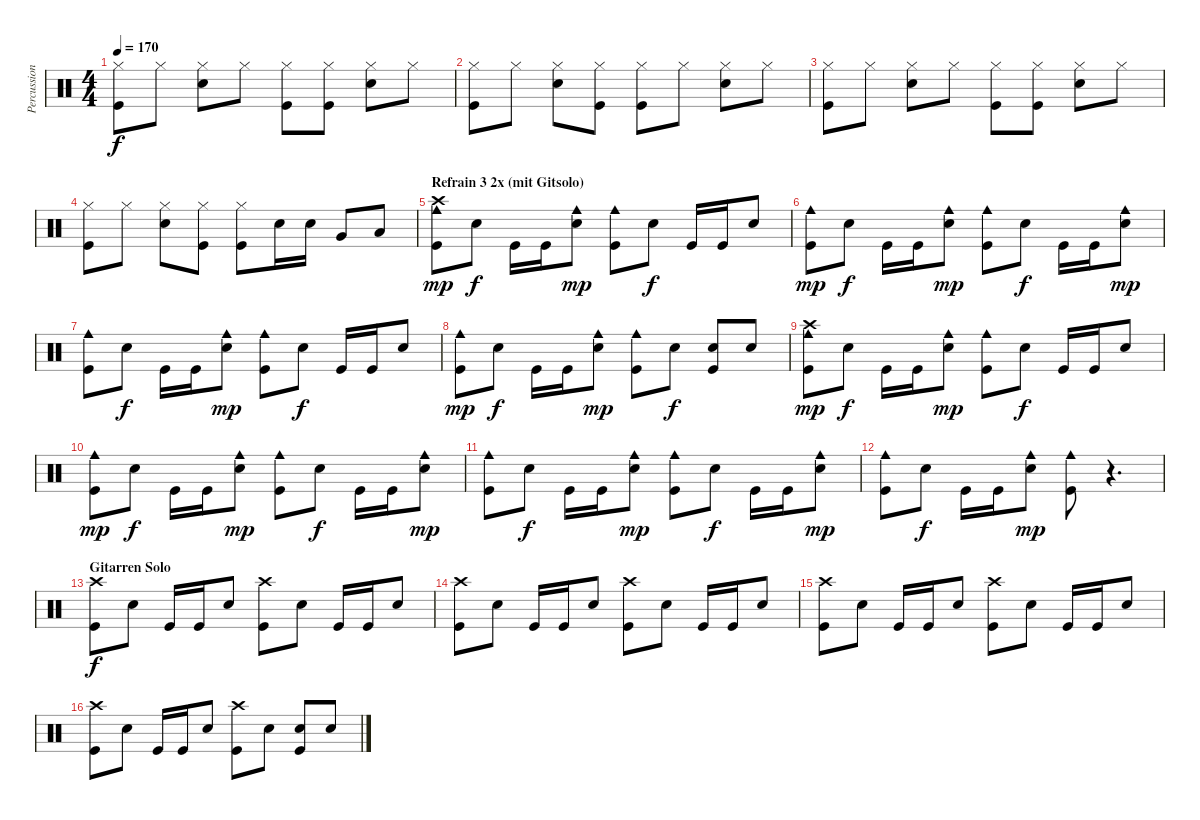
\track ("Percussion" "Percussion") {instrument percussion}
\staff {score}
\articulation defaults
\ts (4 4)
\tempo 170
\clef neutral
\ks c
("Hi-Hat (closed)" "Kick (hit)").8{dy f} "Hi-Hat (closed)".8 ("Hi-Hat (closed)" "Electric Snare (hit)").8 "Hi-Hat (closed)".8 ("Hi-Hat (closed)" "Kick (hit)").8 ("Hi-Hat (closed)" "Kick (hit)").8 ("Hi-Hat (closed)" "Electric Snare (hit)").8 "Hi-Hat (closed)".8 |
("Hi-Hat (closed)" "Kick (hit)").8 "Hi-Hat (closed)".8 ("Hi-Hat (closed)" "Electric Snare (hit)").8 ("Hi-Hat (closed)" "Kick (hit)").8 ("Hi-Hat (closed)" "Kick (hit)").8 "Hi-Hat (closed)".8 ("Hi-Hat (closed)" "Electric Snare (hit)").8 "Hi-Hat (closed)".8 |
("Hi-Hat (closed)" "Kick (hit)").8 "Hi-Hat (closed)".8 ("Hi-Hat (closed)" "Electric Snare (hit)").8 "Hi-Hat (closed)".8 ("Hi-Hat (closed)" "Kick (hit)").8 ("Hi-Hat (closed)" "Kick (hit)").8 ("Hi-Hat (closed)" "Electric Snare (hit)").8 "Hi-Hat (closed)".8 |
("Hi-Hat (closed)" "Kick (hit)").8 "Hi-Hat (closed)".8 ("Hi-Hat (closed)" "Electric Snare (hit)").8 ("Hi-Hat (closed)" "Kick (hit)").8 ("Hi-Hat (closed)" "Kick (hit)").8 "Electric Snare (hit)".16 "Electric Snare (hit)".16 "Very Low Tom (hit)".8 "Low Floor Tom (hit)".8 |
\section ("" "Refrain 3 2x (mit Gitsolo)")
("Cowbell medium (hit)" "Crash high (hit)" "Kick (hit)").8{dy mp} "Electric Snare (hit)".8{dy f} "Kick (hit)".16 "Kick (hit)".16 ("Cowbell medium (hit)" "Electric Snare (hit)").8{dy mp} ("Cowbell medium (hit)" "Kick (hit)").8 "Electric Snare (hit)".8{dy f} "Kick (hit)".16 "Kick (hit)".16 "Electric Snare (hit)".8 |
("Cowbell medium (hit)" "Kick (hit)").8{dy mp} "Electric Snare (hit)".8{dy f} "Kick (hit)".16 "Kick (hit)".16 ("Cowbell medium (hit)" "Electric Snare (hit)").8{dy mp} ("Cowbell medium (hit)" "Kick (hit)").8 "Electric Snare (hit)".8{dy f} "Kick (hit)".16 "Kick (hit)".16 ("Cowbell medium (hit)" "Electric Snare (hit)").8{dy mp} |
("Cowbell medium (hit)" "Kick (hit)").8 "Electric Snare (hit)".8{dy f} "Kick (hit)".16 "Kick (hit)".16 ("Cowbell medium (hit)" "Electric Snare (hit)").8{dy mp} ("Cowbell medium (hit)" "Kick (hit)").8 "Electric Snare (hit)".8{dy f} "Kick (hit)".16 "Kick (hit)".16 "Electric Snare (hit)".8 |
("Cowbell medium (hit)" "Kick (hit)").8{dy mp} "Electric Snare (hit)".8{dy f} "Kick (hit)".16 "Kick (hit)".16 ("Cowbell medium (hit)" "Electric Snare (hit)").8{dy mp} ("Cowbell medium (hit)" "Kick (hit)").8 "Electric Snare (hit)".8{dy f} ("Electric Snare (hit)" "Kick (hit)").8 "Electric Snare (hit)".8 |
("Cowbell medium (hit)" "Crash high (hit)" "Kick (hit)").8{dy mp} "Electric Snare (hit)".8{dy f} "Kick (hit)".16 "Kick (hit)".16 ("Cowbell medium (hit)" "Electric Snare (hit)").8{dy mp} ("Cowbell medium (hit)" "Kick (hit)").8 "Electric Snare (hit)".8{dy f} "Kick (hit)".16 "Kick (hit)".16 "Electric Snare (hit)".8 |
("Cowbell medium (hit)" "Kick (hit)").8{dy mp} "Electric Snare (hit)".8{dy f} "Kick (hit)".16 "Kick (hit)".16 ("Cowbell medium (hit)" "Electric Snare (hit)").8{dy mp} ("Cowbell medium (hit)" "Kick (hit)").8 "Electric Snare (hit)".8{dy f} "Kick (hit)".16 "Kick (hit)".16 ("Cowbell medium (hit)" "Electric Snare (hit)").8{dy mp} |
("Cowbell medium (hit)" "Kick (hit)").8 "Electric Snare (hit)".8{dy f} "Kick (hit)".16 "Kick (hit)".16 ("Cowbell medium (hit)" "Electric Snare (hit)").8{dy mp} ("Cowbell medium (hit)" "Kick (hit)").8 "Electric Snare (hit)".8{dy f} "Kick (hit)".16 "Kick (hit)".16 ("Cowbell medium (hit)" "Electric Snare (hit)").8{dy mp} |
("Cowbell medium (hit)" "Kick (hit)").8 "Electric Snare (hit)".8{dy f} "Kick (hit)".16 "Kick (hit)".16 ("Cowbell medium (hit)" "Electric Snare (hit)").8{dy mp} ("Cowbell medium (hit)" "Kick (hit)").8 r.4{d} |
\section ("" "Gitarren Solo")
("Crash high (hit)" "Kick (hit)").8{dy f} "Electric Snare (hit)".8 "Kick (hit)".16 "Kick (hit)".16 "Electric Snare (hit)".8 ("Crash high (hit)" "Kick (hit)").8 "Electric Snare (hit)".8 "Kick (hit)".16 "Kick (hit)".16 "Electric Snare (hit)".8 |
("Crash high (hit)" "Kick (hit)").8 "Electric Snare (hit)".8 "Kick (hit)".16 "Kick (hit)".16 "Electric Snare (hit)".8 ("Crash high (hit)" "Kick (hit)").8 "Electric Snare (hit)".8 "Kick (hit)".16 "Kick (hit)".16 "Electric Snare (hit)".8 |
("Crash high (hit)" "Kick (hit)").8 "Electric Snare (hit)".8 "Kick (hit)".16 "Kick (hit)".16 "Electric Snare (hit)".8 ("Crash high (hit)" "Kick (hit)").8 "Electric Snare (hit)".8 "Kick (hit)".16 "Kick (hit)".16 "Electric Snare (hit)".8 |
("Crash high (hit)" "Kick (hit)").8 "Electric Snare (hit)".8 "Kick (hit)".16 "Kick (hit)".16 "Electric Snare (hit)".8 ("Crash high (hit)" "Kick (hit)").8 "Electric Snare (hit)".8 ("Electric Snare (hit)" "Kick (hit)").8 "Electric Snare (hit)".8
